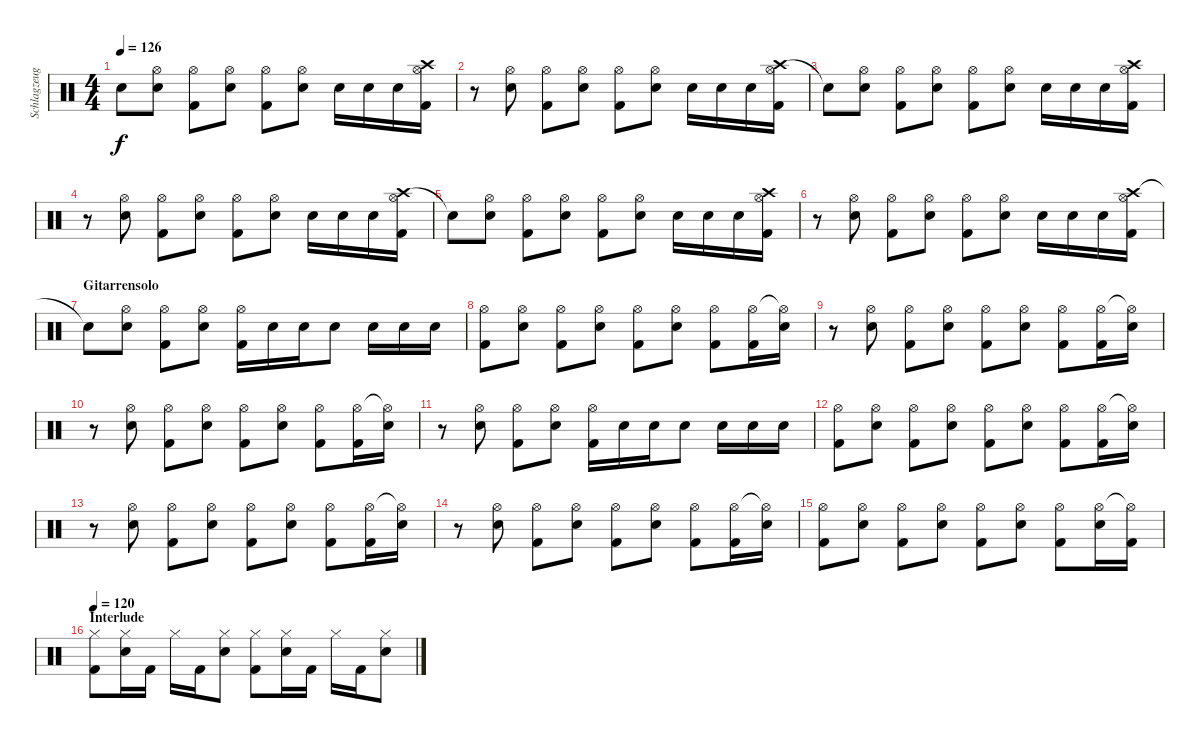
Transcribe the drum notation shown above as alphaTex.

\track ("Schlagzeug - Bela" "Schlagzeug") {instrument percussion}
\staff {score}
\articulation defaults
\ts (4 4)
\tempo 126
\clef neutral
\ks c "Snare (hit)"{t}.8{dy f}
("Snare (hit) 2" "Hi-Hat (open)").8 ("Kick (hit) 2" "Hi-Hat (open)").8 ("Snare (hit) 2" "Hi-Hat (open)").8 ("Kick (hit) 2" "Hi-Hat (open)").8 ("Snare (hit) 2" "Hi-Hat (open)").8 "Snare (hit) 2".16 "Snare (hit) 2".16 "Snare (hit) 2".16 ("Crash high (hit)" "Kick (hit) 2" "Hi-Hat (open)").16 |
r.8 ("Snare (hit) 2" "Hi-Hat (open)").8 ("Kick (hit) 2" "Hi-Hat (open)").8 ("Snare (hit) 2" "Hi-Hat (open)").8 ("Kick (hit) 2" "Hi-Hat (open)").8 ("Snare (hit) 2" "Hi-Hat (open)").8 "Snare (hit) 2".16 "Snare (hit) 2".16 "Snare (hit) 2".16 ("Crash high (hit)" "Kick (hit) 2" "Hi-Hat (open)").16 |
"Snare (hit)"{t}.8 ("Snare (hit) 2" "Hi-Hat (open)").8 ("Kick (hit) 2" "Hi-Hat (open)").8 ("Snare (hit) 2" "Hi-Hat (open)").8 ("Kick (hit) 2" "Hi-Hat (open)").8 ("Snare (hit) 2" "Hi-Hat (open)").8 "Snare (hit) 2".16 "Snare (hit) 2".16 "Snare (hit) 2".16 ("Crash high (hit)" "Kick (hit) 2" "Hi-Hat (open)").16 |
r.8 ("Snare (hit) 2" "Hi-Hat (open)").8 ("Kick (hit) 2" "Hi-Hat (open)").8 ("Snare (hit) 2" "Hi-Hat (open)").8 ("Kick (hit) 2" "Hi-Hat (open)").8 ("Snare (hit) 2" "Hi-Hat (open)").8 "Snare (hit) 2".16 "Snare (hit) 2".16 "Snare (hit) 2".16 ("Crash high (hit)" "Kick (hit) 2" "Hi-Hat (open)").16 |
"Snare (hit)"{t}.8 ("Snare (hit) 2" "Hi-Hat (open)").8 ("Kick (hit) 2" "Hi-Hat (open)").8 ("Snare (hit) 2" "Hi-Hat (open)").8 ("Kick (hit) 2" "Hi-Hat (open)").8 ("Snare (hit) 2" "Hi-Hat (open)").8 "Snare (hit) 2".16 "Snare (hit) 2".16 "Snare (hit) 2".16 ("Crash high (hit)" "Kick (hit) 2" "Hi-Hat (open)").16 |
r.8 ("Snare (hit) 2" "Hi-Hat (open)").8 ("Kick (hit) 2" "Hi-Hat (open)").8 ("Snare (hit) 2" "Hi-Hat (open)").8 ("Kick (hit) 2" "Hi-Hat (open)").8 ("Snare (hit) 2" "Hi-Hat (open)").8 "Snare (hit) 2".16 "Snare (hit) 2".16 "Snare (hit) 2".16 ("Crash high (hit)" "Kick (hit) 2" "Hi-Hat (open)").16 |
\section ("" "Gitarrensolo")
"Snare (hit)"{t}.8 ("Snare (hit) 2" "Hi-Hat (open)").8 ("Kick (hit) 2" "Hi-Hat (open)").8 ("Snare (hit) 2" "Hi-Hat (open)").8 ("Kick (hit) 2" "Hi-Hat (open)").16 "Snare (hit) 2".16 "Snare (hit) 2".16 "Snare (hit) 2".8 "Snare (hit) 2".16 "Snare (hit) 2".16 "Snare (hit) 2".16 |
("Kick (hit) 2" "Hi-Hat (open)").8 ("Snare (hit) 2" "Hi-Hat (open)").8 ("Kick (hit) 2" "Hi-Hat (open)").8 ("Snare (hit) 2" "Hi-Hat (open)").8 ("Kick (hit) 2" "Hi-Hat (open)").8 ("Snare (hit) 2" "Hi-Hat (open)").8 ("Kick (hit) 2" "Hi-Hat (open)").8 ("Kick (hit) 2" "Hi-Hat (open)").16 ("Snare (hit) 2" "Hi-Hat (open)"{t}).16 |
r.8 ("Snare (hit) 2" "Hi-Hat (open)").8 ("Kick (hit) 2" "Hi-Hat (open)").8 ("Snare (hit) 2" "Hi-Hat (open)").8 ("Kick (hit) 2" "Hi-Hat (open)").8 ("Snare (hit) 2" "Hi-Hat (open)").8 ("Kick (hit) 2" "Hi-Hat (open)").8 ("Kick (hit) 2" "Hi-Hat (open)").16 ("Snare (hit) 2" "Hi-Hat (open)"{t}).16 |
r.8 ("Snare (hit) 2" "Hi-Hat (open)").8 ("Kick (hit) 2" "Hi-Hat (open)").8 ("Snare (hit) 2" "Hi-Hat (open)").8 ("Kick (hit) 2" "Hi-Hat (open)").8 ("Snare (hit) 2" "Hi-Hat (open)").8 ("Kick (hit) 2" "Hi-Hat (open)").8 ("Kick (hit) 2" "Hi-Hat (open)").16 ("Snare (hit) 2" "Hi-Hat (open)"{t}).16 |
r.8 ("Snare (hit) 2" "Hi-Hat (open)").8 ("Kick (hit) 2" "Hi-Hat (open)").8 ("Snare (hit) 2" "Hi-Hat (open)").8 ("Kick (hit) 2" "Hi-Hat (open)").16 "Snare (hit) 2".16 "Snare (hit) 2".16 "Snare (hit) 2".8 "Snare (hit) 2".16 "Snare (hit) 2".16 "Snare (hit) 2".16 |
("Kick (hit) 2" "Hi-Hat (open)").8 ("Snare (hit) 2" "Hi-Hat (open)").8 ("Kick (hit) 2" "Hi-Hat (open)").8 ("Snare (hit) 2" "Hi-Hat (open)").8 ("Kick (hit) 2" "Hi-Hat (open)").8 ("Snare (hit) 2" "Hi-Hat (open)").8 ("Kick (hit) 2" "Hi-Hat (open)").8 ("Kick (hit) 2" "Hi-Hat (open)").16 ("Snare (hit) 2" "Hi-Hat (open)"{t}).16 |
r.8 ("Snare (hit) 2" "Hi-Hat (open)").8 ("Kick (hit) 2" "Hi-Hat (open)").8 ("Snare (hit) 2" "Hi-Hat (open)").8 ("Kick (hit) 2" "Hi-Hat (open)").8 ("Snare (hit) 2" "Hi-Hat (open)").8 ("Kick (hit) 2" "Hi-Hat (open)").8 ("Kick (hit) 2" "Hi-Hat (open)").16 ("Snare (hit) 2" "Hi-Hat (open)"{t}).16 |
r.8 ("Snare (hit) 2" "Hi-Hat (open)").8 ("Kick (hit) 2" "Hi-Hat (open)").8 ("Snare (hit) 2" "Hi-Hat (open)").8 ("Kick (hit) 2" "Hi-Hat (open)").8 ("Snare (hit) 2" "Hi-Hat (open)").8 ("Kick (hit) 2" "Hi-Hat (open)").8 ("Kick (hit) 2" "Hi-Hat (open)").16 ("Snare (hit) 2" "Hi-Hat (open)"{t}).16 |
("Kick (hit) 2" "Hi-Hat (open)").8 ("Snare (hit) 2" "Hi-Hat (open)").8 ("Kick (hit) 2" "Hi-Hat (open)").8 ("Snare (hit) 2" "Hi-Hat (open)").8 ("Kick (hit) 2" "Hi-Hat (open)").8 ("Snare (hit) 2" "Hi-Hat (open)").8 ("Kick (hit) 2" "Hi-Hat (open)").8 ("Snare (hit) 2" "Hi-Hat (open)").16 ("Kick (hit) 2" "Hi-Hat (open)"{t}).16 |
\section ("" "Interlude")
\tempo 120
("Kick (hit) 2" "Hi-Hat (closed)").8 ("Snare (hit) 2" "Hi-Hat (closed)").16 "Kick (hit) 2".16 "Hi-Hat (closed)".16 "Kick (hit) 2".16 ("Snare (hit) 2" "Hi-Hat (closed)").8 ("Kick (hit) 2" "Hi-Hat (closed)").8 ("Snare (hit) 2" "Hi-Hat (closed)").16 "Kick (hit) 2".16 "Hi-Hat (closed)".16 "Kick (hit) 2".16 ("Snare (hit) 2" "Hi-Hat (closed)").8
